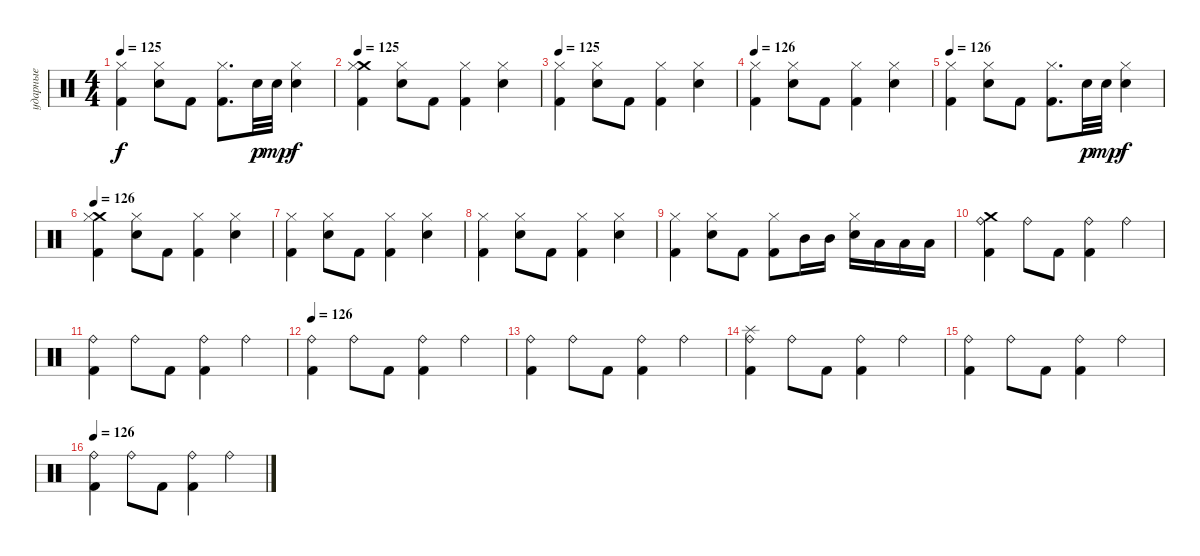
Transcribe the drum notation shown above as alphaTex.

\track ("ударные" "ударные") {instrument percussion}
\staff {score}
\articulation defaults
\ts (4 4)
\tempo 125
\clef neutral
\ks c
("Kick (hit) 2" "Hi-Hat (closed)").4{dy f} ("Electric Snare (hit)" "Hi-Hat (closed)").8 "Kick (hit) 2".8 ("Kick (hit) 2" "Hi-Hat (closed)").8{d} "Electric Snare (hit)".32{dy p} "Electric Snare (hit)".32{dy mp} ("Electric Snare (hit)" "Hi-Hat (closed)").4{dy f} |
\tempo 125
("Crash medium (hit)" "Kick (hit) 2" "Hi-Hat (closed)").4 ("Electric Snare (hit)" "Hi-Hat (closed)").8 "Kick (hit) 2".8 ("Kick (hit) 2" "Hi-Hat (closed)").4 ("Electric Snare (hit)" "Hi-Hat (closed)").4 |
\tempo 125
("Kick (hit) 2" "Hi-Hat (closed)").4 ("Hi-Hat (closed)" "Electric Snare (hit)").8 "Kick (hit) 2".8 ("Hi-Hat (closed)" "Kick (hit) 2").4 ("Electric Snare (hit)" "Hi-Hat (closed)").4 |
\tempo 126
("Kick (hit) 2" "Hi-Hat (closed)").4 ("Hi-Hat (closed)" "Electric Snare (hit)").8 "Kick (hit) 2".8 ("Kick (hit) 2" "Hi-Hat (closed)").4 ("Hi-Hat (closed)" "Electric Snare (hit)").4 |
\tempo 126
("Kick (hit) 2" "Hi-Hat (closed)").4 ("Hi-Hat (closed)" "Electric Snare (hit)").8 "Kick (hit) 2".8 ("Hi-Hat (closed)" "Kick (hit) 2").8{d} "Electric Snare (hit)".32{dy p} "Electric Snare (hit)".32{dy mp} ("Electric Snare (hit)" "Hi-Hat (closed)").4{dy f} |
\tempo 126
("Crash medium (hit)" "Hi-Hat (closed)" "Kick (hit) 2").4 ("Electric Snare (hit)" "Hi-Hat (closed)").8 "Kick (hit) 2".8 ("Hi-Hat (closed)" "Kick (hit) 2").4 ("Hi-Hat (closed)" "Electric Snare (hit)").4 |
("Hi-Hat (closed)" "Kick (hit) 2").4 ("Hi-Hat (closed)" "Electric Snare (hit)").8 "Kick (hit) 2".8 ("Hi-Hat (closed)" "Kick (hit) 2").4 ("Electric Snare (hit)" "Hi-Hat (closed)").4 |
("Kick (hit) 2" "Hi-Hat (closed)").4 ("Hi-Hat (closed)" "Electric Snare (hit)").8 "Kick (hit) 2".8 ("Kick (hit) 2" "Hi-Hat (closed)").4 ("Electric Snare (hit)" "Hi-Hat (closed)").4 |
("Kick (hit) 2" "Hi-Hat (closed)").4 ("Hi-Hat (closed)" "Electric Snare (hit)").8 "Kick (hit) 2".8 ("Kick (hit) 2" "Hi-Hat (closed)").8 "Mid Tom (hit)".16 "Mid Tom (hit)".16 ("Hi-Hat (closed)" "Electric Snare (hit)").16 "Low Floor Tom (hit)".16 "Low Floor Tom (hit)".16 "Low Floor Tom (hit)".16 |
("Crash medium (hit)" "Ride (bell)" "Kick (hit) 2").4 "Ride (bell)".8 "Kick (hit) 2".8 ("Kick (hit) 2" "Ride (bell)").4 "Ride (bell)".4 |
("Ride (bell)" "Kick (hit) 2").4 "Ride (bell)".8 "Kick (hit) 2".8 ("Ride (bell)" "Kick (hit) 2").4 "Ride (bell)".4 |
\tempo 126
("Ride (bell)" "Kick (hit) 2").4 "Ride (bell)".8 "Kick (hit) 2".8 ("Ride (bell)" "Kick (hit) 2").4 "Ride (bell)".4 |
("Kick (hit) 2" "Ride (bell)").4 "Ride (bell)".8 "Kick (hit) 2".8 ("Ride (bell)" "Kick (hit) 2").4 "Ride (bell)".4 |
("Splash (hit)" "Kick (hit) 2" "Ride (bell)").4 "Ride (bell)".8 "Kick (hit) 2".8 ("Ride (bell)" "Kick (hit) 2").4 "Ride (bell)".4 |
("Kick (hit) 2" "Ride (bell)").4 "Ride (bell)".8 "Kick (hit) 2".8 ("Kick (hit) 2" "Ride (bell)").4 "Ride (bell)".4 |
\tempo 126
("Kick (hit) 2" "Ride (bell)").4 "Ride (bell)".8 "Kick (hit) 2".8 ("Kick (hit) 2" "Ride (bell)").4 "Ride (bell)".4
